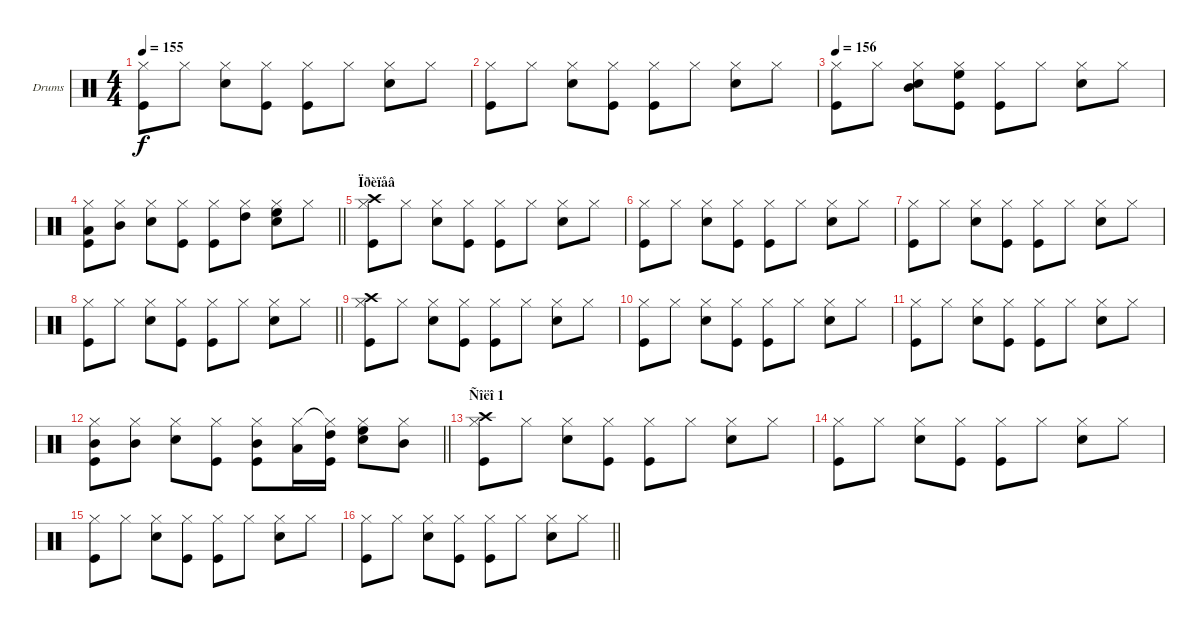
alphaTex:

\bracketExtendMode groupsimilarinstruments
\firstSystemTrackNameOrientation horizontal
\otherSystemsTrackNameOrientation horizontal
\track ("Drumkit" "Drums") {instrument percussion}
\staff {score}
\articulation defaults
\ts (4 4)
\tempo 155
\clef neutral
\ks c
("Hi-Hat (closed)" "Kick (hit)").8{dy f} "Hi-Hat (closed)".8 ("Hi-Hat (closed)" "Snare (hit) 2").8 ("Hi-Hat (closed)" "Kick (hit)").8 ("Hi-Hat (closed)" "Kick (hit)").8 "Hi-Hat (closed)".8 ("Hi-Hat (closed)" "Snare (hit) 2").8 "Hi-Hat (closed)".8 |
("Hi-Hat (closed)" "Kick (hit)").8 "Hi-Hat (closed)".8 ("Hi-Hat (closed)" "Snare (hit) 2").8 ("Hi-Hat (closed)" "Kick (hit)").8 ("Hi-Hat (closed)" "Kick (hit)").8 "Hi-Hat (closed)".8 ("Hi-Hat (closed)" "Snare (hit) 2").8 "Hi-Hat (closed)".8 |
\tempo 156
("Hi-Hat (closed)" "Kick (hit)").8 "Hi-Hat (closed)".8 ("Hi-Hat (closed)" "Snare (hit) 2" "Mid Tom (hit)").8 ("Hi-Hat (closed)" "Kick (hit)" "High Floor Tom (hit)").8 ("Hi-Hat (closed)" "Kick (hit)").8 "Hi-Hat (closed)".8 ("Hi-Hat (closed)" "Snare (hit) 2").8 "Hi-Hat (closed)".8 |
\barLineRight lightlight
("Hi-Hat (closed)" "Kick (hit)" "Low Tom (hit)").8 ("Hi-Hat (closed)" "Mid Tom (hit)").8 ("Hi-Hat (closed)" "Snare (hit) 2").8 ("Hi-Hat (closed)" "Kick (hit)").8 ("Hi-Hat (closed)" "Kick (hit)").8 ("Hi-Hat (closed)" "High Tom (hit)").8 ("Hi-Hat (closed)" "Snare (hit) 2" "High Floor Tom (hit)").8 "Hi-Hat (closed)".8 |
\section ("" "Ïðèïåâ")
("Hi-Hat (closed)" "Kick (hit)" "Crash high (hit)").8 "Hi-Hat (closed)".8 ("Hi-Hat (closed)" "Snare (hit) 2").8 ("Hi-Hat (closed)" "Kick (hit)").8 ("Hi-Hat (closed)" "Kick (hit)").8 "Hi-Hat (closed)".8 ("Hi-Hat (closed)" "Snare (hit) 2").8 "Hi-Hat (closed)".8 |
("Hi-Hat (closed)" "Kick (hit)").8 "Hi-Hat (closed)".8 ("Hi-Hat (closed)" "Snare (hit) 2").8 ("Hi-Hat (closed)" "Kick (hit)").8 ("Hi-Hat (closed)" "Kick (hit)").8 "Hi-Hat (closed)".8 ("Hi-Hat (closed)" "Snare (hit) 2").8 "Hi-Hat (closed)".8 |
("Hi-Hat (closed)" "Kick (hit)").8 "Hi-Hat (closed)".8 ("Hi-Hat (closed)" "Snare (hit) 2").8 ("Hi-Hat (closed)" "Kick (hit)").8 ("Hi-Hat (closed)" "Kick (hit)").8 "Hi-Hat (closed)".8 ("Hi-Hat (closed)" "Snare (hit) 2").8 "Hi-Hat (closed)".8 |
\barLineRight lightlight
("Hi-Hat (closed)" "Kick (hit)").8 "Hi-Hat (closed)".8 ("Hi-Hat (closed)" "Snare (hit) 2").8 ("Hi-Hat (closed)" "Kick (hit)").8 ("Hi-Hat (closed)" "Kick (hit)").8 "Hi-Hat (closed)".8 ("Hi-Hat (closed)" "Snare (hit) 2").8 "Hi-Hat (closed)".8 |
("Hi-Hat (closed)" "Kick (hit)" "Crash high (hit)").8 "Hi-Hat (closed)".8 ("Hi-Hat (closed)" "Snare (hit) 2").8 ("Hi-Hat (closed)" "Kick (hit)").8 ("Hi-Hat (closed)" "Kick (hit)").8 "Hi-Hat (closed)".8 ("Hi-Hat (closed)" "Snare (hit) 2").8 "Hi-Hat (closed)".8 |
("Hi-Hat (closed)" "Kick (hit)").8 "Hi-Hat (closed)".8 ("Hi-Hat (closed)" "Snare (hit) 2").8 ("Hi-Hat (closed)" "Kick (hit)").8 ("Hi-Hat (closed)" "Kick (hit)").8 "Hi-Hat (closed)".8 ("Hi-Hat (closed)" "Snare (hit) 2").8 "Hi-Hat (closed)".8 |
("Hi-Hat (closed)" "Kick (hit)").8 "Hi-Hat (closed)".8 ("Hi-Hat (closed)" "Snare (hit) 2").8 ("Hi-Hat (closed)" "Kick (hit)").8 ("Hi-Hat (closed)" "Kick (hit)").8 "Hi-Hat (closed)".8 ("Hi-Hat (closed)" "Snare (hit) 2").8 "Hi-Hat (closed)".8 |
\barLineRight lightlight
("Hi-Hat (closed)" "Kick (hit)" "Mid Tom (hit)").8 ("Hi-Hat (closed)" "Mid Tom (hit)").8 ("Hi-Hat (closed)" "Snare (hit) 2").8 ("Hi-Hat (closed)" "Kick (hit)").8 ("Hi-Hat (closed)" "Kick (hit)" "Mid Tom (hit)").8 ("Hi-Hat (closed)" "Low Tom (hit)").16 ("Hi-Hat (closed)"{t} "Kick (hit)" "High Tom (hit)").16 ("Hi-Hat (closed)" "Snare (hit) 2" "High Floor Tom (hit)").8 ("Hi-Hat (closed)" "Mid Tom (hit)").8 |
\section ("" "Ñîëî 1")
("Hi-Hat (closed)" "Kick (hit)" "Crash high (hit)").8 "Hi-Hat (closed)".8 ("Hi-Hat (closed)" "Snare (hit) 2").8 ("Hi-Hat (closed)" "Kick (hit)").8 ("Hi-Hat (closed)" "Kick (hit)").8 "Hi-Hat (closed)".8 ("Hi-Hat (closed)" "Snare (hit) 2").8 "Hi-Hat (closed)".8 |
("Hi-Hat (closed)" "Kick (hit)").8 "Hi-Hat (closed)".8 ("Hi-Hat (closed)" "Snare (hit) 2").8 ("Hi-Hat (closed)" "Kick (hit)").8 ("Hi-Hat (closed)" "Kick (hit)").8 "Hi-Hat (closed)".8 ("Hi-Hat (closed)" "Snare (hit) 2").8 "Hi-Hat (closed)".8 |
("Hi-Hat (closed)" "Kick (hit)").8 "Hi-Hat (closed)".8 ("Hi-Hat (closed)" "Snare (hit) 2").8 ("Hi-Hat (closed)" "Kick (hit)").8 ("Hi-Hat (closed)" "Kick (hit)").8 "Hi-Hat (closed)".8 ("Hi-Hat (closed)" "Snare (hit) 2").8 "Hi-Hat (closed)".8 |
\barLineRight lightlight
("Hi-Hat (closed)" "Kick (hit)").8 "Hi-Hat (closed)".8 ("Hi-Hat (closed)" "Snare (hit) 2").8 ("Hi-Hat (closed)" "Kick (hit)").8 ("Hi-Hat (closed)" "Kick (hit)").8 "Hi-Hat (closed)".8 ("Hi-Hat (closed)" "Snare (hit) 2").8 "Hi-Hat (closed)".8
